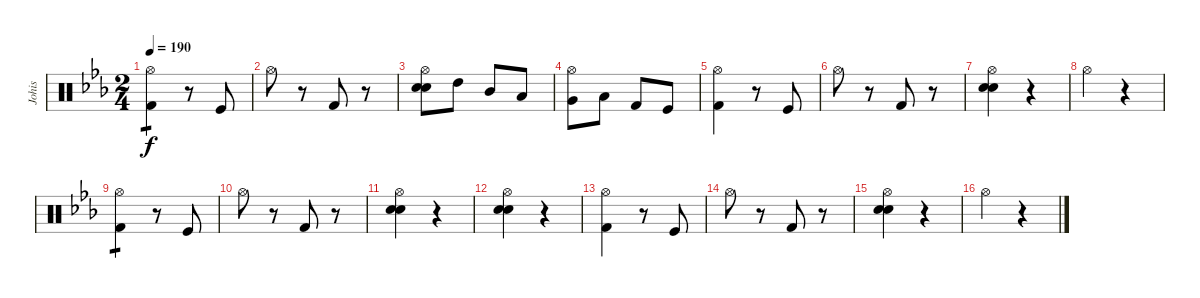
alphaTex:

\track ("Johis" "Johis") {instrument percussion}
\staff {score}
\articulation defaults
\ts (2 4)
\tempo 190
\clef neutral
\ks eb
("Hi-Hat (open)" "Kick (hit) 2").4{tp 1 dy f} r.8 "Kick (hit)".8 |
"Hi-Hat (open)".8 r.8 "Kick (hit) 2".8 r.8 |
("Hi-Hat (open)" "Snare (hit) 2" "Electric Snare (hit)").8 "High Tom (hit)".8 "Mid Tom (hit)".8 "Low Tom (hit)".8 |
("Hi-Hat (open)" "Very Low Tom (hit)").8 "Low Floor Tom (hit)".8 "Kick (hit) 2".8 "Kick (hit)".8 |
("Hi-Hat (open)" "Kick (hit) 2").4 r.8 "Kick (hit)".8 |
"Hi-Hat (open)".8 r.8 "Kick (hit) 2".8 r.8 |
("Hi-Hat (open)" "Snare (hit) 2" "Electric Snare (hit)").4 r.4 |
"Hi-Hat (open)".4 r.4 |
("Hi-Hat (open)" "Kick (hit) 2").4{tp 1} r.8 "Kick (hit)".8 |
"Hi-Hat (open)".8 r.8 "Kick (hit) 2".8 r.8 |
("Hi-Hat (open)" "Snare (hit) 2" "Electric Snare (hit)").4 r.4 |
("Hi-Hat (open)" "Snare (hit) 2" "Electric Snare (hit)").4 r.4 |
("Hi-Hat (open)" "Kick (hit) 2").4 r.8 "Kick (hit)".8 |
"Hi-Hat (open)".8 r.8 "Kick (hit) 2".8 r.8 |
("Hi-Hat (open)" "Snare (hit) 2" "Electric Snare (hit)").4 r.4 |
"Hi-Hat (open)".4 r.4
